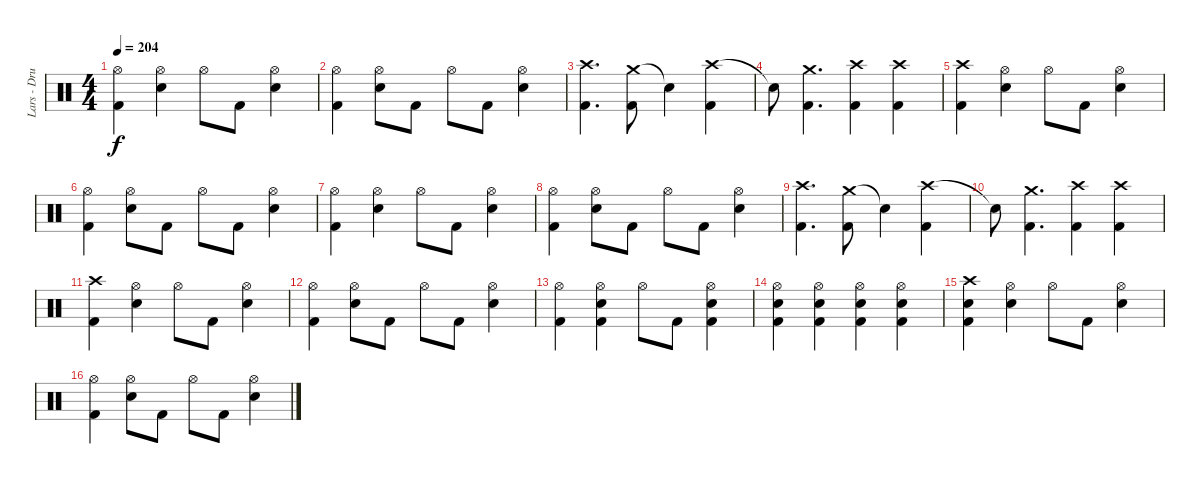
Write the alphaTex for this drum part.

\track ("Lars - Drums" "Lars - Dru") {instrument percussion}
\staff {score}
\articulation defaults
\ts (4 4)
\tempo 204
\clef neutral
\ks c
("Hi-Hat (open)" "Kick (hit) 2").4{dy f} ("Hi-Hat (open)" "Electric Snare (hit)").4 "Hi-Hat (open)".8 "Kick (hit) 2".8 ("Hi-Hat (open)" "Electric Snare (hit)").4 |
("Hi-Hat (open)" "Kick (hit) 2").4 ("Hi-Hat (open)" "Electric Snare (hit)").8 "Kick (hit) 2".8 "Hi-Hat (open)".8 "Kick (hit) 2".8 ("Hi-Hat (open)" "Electric Snare (hit)").4 |
("Crash high (hit)" "Kick (hit) 2").4{d} ("Crash medium (hit)" "Kick (hit) 2").8 "Snare (hit)"{t}.4 ("Crash high (hit)" "Kick (hit) 2").4 |
"Snare (hit)"{t}.8 ("Crash medium (hit)" "Kick (hit) 2").4{d} ("Crash high (hit)" "Kick (hit) 2").4 ("Crash high (hit)" "Kick (hit) 2").4 |
("Crash high (hit)" "Kick (hit) 2").4 ("Hi-Hat (open)" "Electric Snare (hit)").4 "Hi-Hat (open)".8 "Kick (hit) 2".8 ("Hi-Hat (open)" "Electric Snare (hit)").4 |
("Hi-Hat (open)" "Kick (hit) 2").4 ("Hi-Hat (open)" "Electric Snare (hit)").8 "Kick (hit) 2".8 "Hi-Hat (open)".8 "Kick (hit) 2".8 ("Hi-Hat (open)" "Electric Snare (hit)").4 |
("Hi-Hat (open)" "Kick (hit) 2").4 ("Hi-Hat (open)" "Electric Snare (hit)").4 "Hi-Hat (open)".8 "Kick (hit) 2".8 ("Hi-Hat (open)" "Electric Snare (hit)").4 |
("Hi-Hat (open)" "Kick (hit) 2").4 ("Hi-Hat (open)" "Electric Snare (hit)").8 "Kick (hit) 2".8 "Hi-Hat (open)".8 "Kick (hit) 2".8 ("Hi-Hat (open)" "Electric Snare (hit)").4 |
("Crash high (hit)" "Kick (hit) 2").4{d} ("Crash medium (hit)" "Kick (hit) 2").8 "Snare (hit)"{t}.4 ("Crash high (hit)" "Kick (hit) 2").4 |
"Snare (hit)"{t}.8 ("Crash medium (hit)" "Kick (hit) 2").4{d} ("Crash high (hit)" "Kick (hit) 2").4 ("Crash high (hit)" "Kick (hit) 2").4 |
("Crash high (hit)" "Kick (hit) 2").4 ("Hi-Hat (open)" "Electric Snare (hit)").4 "Hi-Hat (open)".8 "Kick (hit) 2".8 ("Hi-Hat (open)" "Electric Snare (hit)").4 |
("Hi-Hat (open)" "Kick (hit) 2").4 ("Hi-Hat (open)" "Electric Snare (hit)").8 "Kick (hit) 2".8 "Hi-Hat (open)".8 "Kick (hit) 2".8 ("Hi-Hat (open)" "Electric Snare (hit)").4 |
("Hi-Hat (open)" "Kick (hit) 2").4 ("Hi-Hat (open)" "Electric Snare (hit)" "Kick (hit) 2").4 "Hi-Hat (open)".8 "Kick (hit) 2".8 ("Hi-Hat (open)" "Electric Snare (hit)" "Kick (hit) 2").4 |
("Hi-Hat (open)" "Electric Snare (hit)" "Kick (hit) 2").4 ("Hi-Hat (open)" "Electric Snare (hit)" "Kick (hit) 2").4 ("Hi-Hat (open)" "Electric Snare (hit)" "Kick (hit) 2").4 ("Hi-Hat (open)" "Electric Snare (hit)" "Kick (hit) 2").4 |
("Crash high (hit)" "Electric Snare (hit)" "Kick (hit) 2").4 ("Hi-Hat (open)" "Electric Snare (hit)").4 "Hi-Hat (open)".8 "Kick (hit) 2".8 ("Hi-Hat (open)" "Electric Snare (hit)").4 |
("Hi-Hat (open)" "Kick (hit) 2").4 ("Hi-Hat (open)" "Electric Snare (hit)").8 "Kick (hit) 2".8 "Hi-Hat (open)".8 "Kick (hit) 2".8 ("Hi-Hat (open)" "Electric Snare (hit)").4
